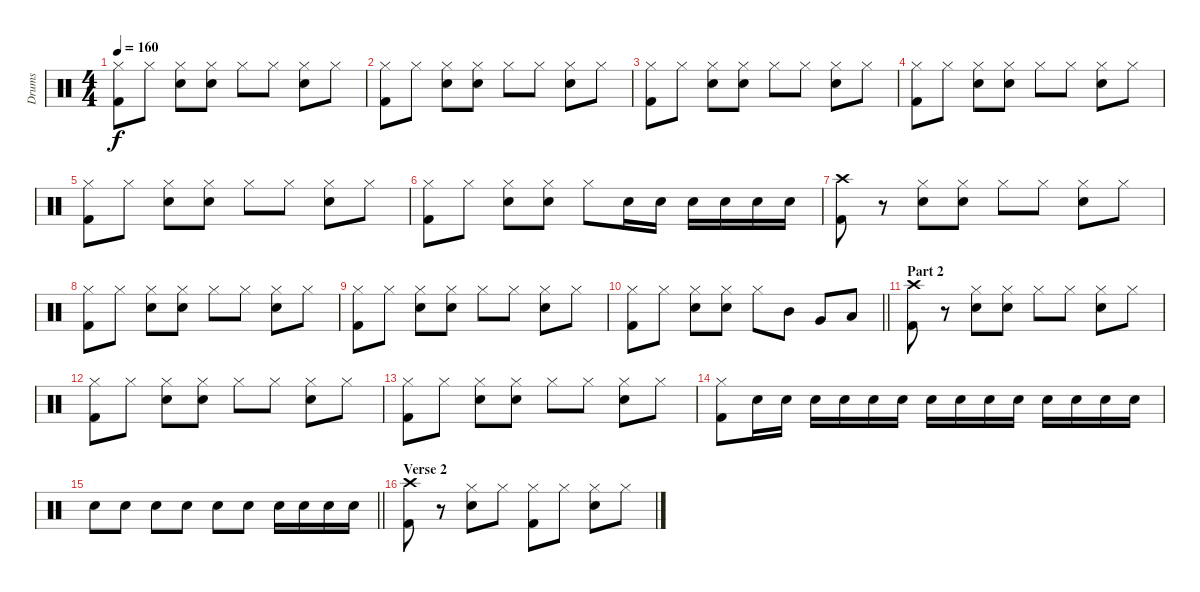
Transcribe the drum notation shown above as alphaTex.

\track ("Drums" "Drums") {instrument percussion}
\staff {score}
\articulation defaults
\ts (4 4)
\tempo 160
\clef neutral
\ks c
("Hi-Hat (closed)" "Kick (hit) 2").8{dy f} "Hi-Hat (closed)".8 ("Hi-Hat (closed)" "Electric Snare (hit)").8 ("Hi-Hat (closed)" "Electric Snare (hit)").8 "Hi-Hat (closed)".8 "Hi-Hat (closed)".8 ("Hi-Hat (closed)" "Electric Snare (hit)").8 "Hi-Hat (closed)".8 |
("Hi-Hat (closed)" "Kick (hit) 2").8 "Hi-Hat (closed)".8 ("Hi-Hat (closed)" "Electric Snare (hit)").8 ("Hi-Hat (closed)" "Electric Snare (hit)").8 "Hi-Hat (closed)".8 "Hi-Hat (closed)".8 ("Hi-Hat (closed)" "Electric Snare (hit)").8 "Hi-Hat (closed)".8 |
("Hi-Hat (closed)" "Kick (hit) 2").8 "Hi-Hat (closed)".8 ("Hi-Hat (closed)" "Electric Snare (hit)").8 ("Hi-Hat (closed)" "Electric Snare (hit)").8 "Hi-Hat (closed)".8 "Hi-Hat (closed)".8 ("Hi-Hat (closed)" "Electric Snare (hit)").8 "Hi-Hat (closed)".8 |
("Hi-Hat (closed)" "Kick (hit) 2").8 "Hi-Hat (closed)".8 ("Hi-Hat (closed)" "Electric Snare (hit)").8 ("Hi-Hat (closed)" "Electric Snare (hit)").8 "Hi-Hat (closed)".8 "Hi-Hat (closed)".8 ("Hi-Hat (closed)" "Electric Snare (hit)").8 "Hi-Hat (closed)".8 |
("Hi-Hat (closed)" "Kick (hit) 2").8 "Hi-Hat (closed)".8 ("Hi-Hat (closed)" "Electric Snare (hit)").8 ("Hi-Hat (closed)" "Electric Snare (hit)").8 "Hi-Hat (closed)".8 "Hi-Hat (closed)".8 ("Hi-Hat (closed)" "Electric Snare (hit)").8 "Hi-Hat (closed)".8 |
("Hi-Hat (closed)" "Kick (hit) 2").8 "Hi-Hat (closed)".8 ("Hi-Hat (closed)" "Electric Snare (hit)").8 ("Hi-Hat (closed)" "Electric Snare (hit)").8 "Hi-Hat (closed)".8 "Electric Snare (hit)".16 "Electric Snare (hit)".16 "Electric Snare (hit)".16 "Electric Snare (hit)".16 "Electric Snare (hit)".16 "Electric Snare (hit)".16 |
("Crash high (hit)" "Kick (hit) 2").8 r.8 ("Hi-Hat (closed)" "Electric Snare (hit)").8 ("Hi-Hat (closed)" "Electric Snare (hit)").8 "Hi-Hat (closed)".8 "Hi-Hat (closed)".8 ("Hi-Hat (closed)" "Electric Snare (hit)").8 "Hi-Hat (closed)".8 |
("Hi-Hat (closed)" "Kick (hit) 2").8 "Hi-Hat (closed)".8 ("Hi-Hat (closed)" "Electric Snare (hit)").8 ("Hi-Hat (closed)" "Electric Snare (hit)").8 "Hi-Hat (closed)".8 "Hi-Hat (closed)".8 ("Hi-Hat (closed)" "Electric Snare (hit)").8 "Hi-Hat (closed)".8 |
("Hi-Hat (closed)" "Kick (hit) 2").8 "Hi-Hat (closed)".8 ("Hi-Hat (closed)" "Electric Snare (hit)").8 ("Hi-Hat (closed)" "Electric Snare (hit)").8 "Hi-Hat (closed)".8 "Hi-Hat (closed)".8 ("Hi-Hat (closed)" "Electric Snare (hit)").8 "Hi-Hat (closed)".8 |
\barLineRight lightlight
("Hi-Hat (closed)" "Kick (hit) 2").8 "Hi-Hat (closed)".8 ("Hi-Hat (closed)" "Electric Snare (hit)").8 ("Hi-Hat (closed)" "Electric Snare (hit)").8 "Hi-Hat (closed)".8 "Mid Tom (hit)".8 "Very Low Tom (hit)".8 "Low Tom (hit)".8 |
\section ("" "Part 2")
("Crash high (hit)" "Kick (hit) 2").8 r.8 ("Hi-Hat (closed)" "Electric Snare (hit)").8 ("Hi-Hat (closed)" "Electric Snare (hit)").8 "Hi-Hat (closed)".8 "Hi-Hat (closed)".8 ("Hi-Hat (closed)" "Electric Snare (hit)").8 "Hi-Hat (closed)".8 |
("Hi-Hat (closed)" "Kick (hit) 2").8 "Hi-Hat (closed)".8 ("Hi-Hat (closed)" "Electric Snare (hit)").8 ("Hi-Hat (closed)" "Electric Snare (hit)").8 "Hi-Hat (closed)".8 "Hi-Hat (closed)".8 ("Hi-Hat (closed)" "Electric Snare (hit)").8 "Hi-Hat (closed)".8 |
("Hi-Hat (closed)" "Kick (hit) 2").8 "Hi-Hat (closed)".8 ("Hi-Hat (closed)" "Electric Snare (hit)").8 ("Hi-Hat (closed)" "Electric Snare (hit)").8 "Hi-Hat (closed)".8 "Hi-Hat (closed)".8 ("Hi-Hat (closed)" "Electric Snare (hit)").8 "Hi-Hat (closed)".8 |
("Hi-Hat (closed)" "Kick (hit) 2").8 "Electric Snare (hit)".16{volume 4} "Electric Snare (hit)".16{volume 14} "Electric Snare (hit)".16 "Electric Snare (hit)".16 "Electric Snare (hit)".16 "Electric Snare (hit)".16 "Electric Snare (hit)".16 "Electric Snare (hit)".16 "Electric Snare (hit)".16 "Electric Snare (hit)".16 "Electric Snare (hit)".16 "Electric Snare (hit)".16 "Electric Snare (hit)".16 "Electric Snare (hit)".16 |
\barLineRight lightlight "Electric Snare (hit)".8 "Electric Snare (hit)".8 "Electric Snare (hit)".8 "Electric Snare (hit)".8 "Electric Snare (hit)".8 "Electric Snare (hit)".8 "Electric Snare (hit)".16 "Electric Snare (hit)".16 "Electric Snare (hit)".16 "Electric Snare (hit)".16
|
\section ("" "Verse 2")
("Crash high (hit)" "Kick (hit) 2").8 r.8 ("Hi-Hat (closed)" "Electric Snare (hit)").8 "Hi-Hat (closed)".8 ("Hi-Hat (closed)" "Kick (hit) 2").8 "Hi-Hat (closed)".8 ("Hi-Hat (closed)" "Electric Snare (hit)").8 "Hi-Hat (closed)".8
